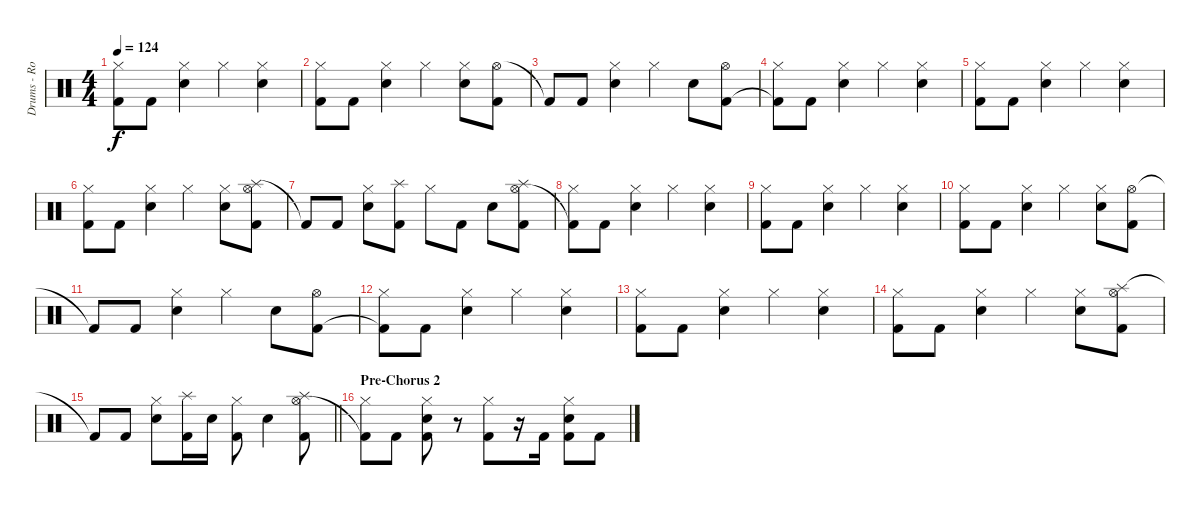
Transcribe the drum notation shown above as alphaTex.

\track ("Drums - Rockenfield" "Drums - Ro") {instrument percussion}
\staff {score}
\articulation defaults
\ts (4 4)
\tempo 124
\clef neutral
\ks c
("Hi-Hat (closed)" "Kick (hit) 2").8{dy f} "Kick (hit) 2".8 ("Hi-Hat (closed)" "Snare (hit) 2").4 "Hi-Hat (closed)".4 ("Hi-Hat (closed)" "Snare (hit) 2").4 |
("Hi-Hat (closed)" "Kick (hit) 2").8 "Kick (hit) 2".8 ("Hi-Hat (closed)" "Snare (hit) 2").4 "Hi-Hat (closed)".4 ("Hi-Hat (closed)" "Snare (hit) 2").8 ("Hi-Hat (open)" "Kick (hit) 2").8 |
"Kick (hit) 2"{t}.8 "Kick (hit) 2".8 ("Hi-Hat (closed)" "Snare (hit) 2").4 "Hi-Hat (closed)".4 "Snare (hit) 2".8 ("Hi-Hat (open)" "Kick (hit) 2").8 |
("Hi-Hat (closed)" "Kick (hit) 2"{t}).8 "Kick (hit) 2".8 ("Hi-Hat (closed)" "Snare (hit) 2").4 "Hi-Hat (closed)".4 ("Hi-Hat (closed)" "Snare (hit) 2").4 |
("Hi-Hat (closed)" "Kick (hit) 2").8 "Kick (hit) 2".8 ("Hi-Hat (closed)" "Snare (hit) 2").4 "Hi-Hat (closed)".4 ("Hi-Hat (closed)" "Snare (hit) 2").4 |
("Hi-Hat (closed)" "Kick (hit) 2").8 "Kick (hit) 2".8 ("Hi-Hat (closed)" "Snare (hit) 2").4 "Hi-Hat (closed)".4 ("Hi-Hat (closed)" "Snare (hit) 2").8 ("Splash (hit)" "Hi-Hat (open)" "Kick (hit) 2").8 |
"Kick (hit) 2"{t}.8 "Kick (hit) 2".8 ("Hi-Hat (closed)" "Snare (hit) 2").8 ("Splash (hit)" "Kick (hit) 2").8 "Hi-Hat (closed)".8 "Kick (hit) 2".8 "Snare (hit) 2".8 ("Splash (hit)" "Hi-Hat (open)" "Kick (hit) 2").8 |
("Hi-Hat (closed)" "Kick (hit) 2"{t}).8 "Kick (hit) 2".8 ("Hi-Hat (closed)" "Snare (hit) 2").4 "Hi-Hat (closed)".4 ("Hi-Hat (closed)" "Snare (hit) 2").4 |
("Hi-Hat (closed)" "Kick (hit) 2").8 "Kick (hit) 2".8 ("Hi-Hat (closed)" "Snare (hit) 2").4 "Hi-Hat (closed)".4 ("Hi-Hat (closed)" "Snare (hit) 2").4 |
("Hi-Hat (closed)" "Kick (hit) 2").8 "Kick (hit) 2".8 ("Hi-Hat (closed)" "Snare (hit) 2").4 "Hi-Hat (closed)".4 ("Hi-Hat (closed)" "Snare (hit) 2").8 ("Hi-Hat (open)" "Kick (hit) 2").8 |
"Kick (hit) 2"{t}.8 "Kick (hit) 2".8 ("Hi-Hat (closed)" "Snare (hit) 2").4 "Hi-Hat (closed)".4 "Snare (hit) 2".8 ("Hi-Hat (open)" "Kick (hit) 2").8 |
("Hi-Hat (closed)" "Kick (hit) 2"{t}).8 "Kick (hit) 2".8 ("Hi-Hat (closed)" "Snare (hit) 2").4 "Hi-Hat (closed)".4 ("Hi-Hat (closed)" "Snare (hit) 2").4 |
("Hi-Hat (closed)" "Kick (hit) 2").8 "Kick (hit) 2".8 ("Hi-Hat (closed)" "Snare (hit) 2").4 "Hi-Hat (closed)".4 ("Hi-Hat (closed)" "Snare (hit) 2").4 |
("Hi-Hat (closed)" "Kick (hit) 2").8 "Kick (hit) 2".8 ("Hi-Hat (closed)" "Snare (hit) 2").4 "Hi-Hat (closed)".4 ("Hi-Hat (closed)" "Snare (hit) 2").8 ("Splash (hit)" "Hi-Hat (open)" "Kick (hit) 2").8 |
\barLineRight lightlight "Kick (hit) 2"{t}.8 "Kick (hit) 2".8
("Hi-Hat (closed)" "Snare (hit) 2").8 ("Splash (hit)" "Kick (hit) 2").16 "Snare (hit) 2".16 ("Hi-Hat (closed)" "Kick (hit) 2").8 "Snare (hit) 2".4 ("Splash (hit)" "Hi-Hat (open)" "Kick (hit) 2").8 |
\section ("" "Pre-Chorus 2")
("Hi-Hat (closed)" "Kick (hit) 2"{t}).8 "Kick (hit) 2".8 ("Hi-Hat (closed)" "Snare (hit) 2" "Kick (hit) 2").8 r.8 ("Hi-Hat (closed)" "Kick (hit) 2").8 r.16 "Kick (hit) 2".16 ("Hi-Hat (closed)" "Snare (hit) 2" "Kick (hit) 2").8 "Kick (hit) 2".8
